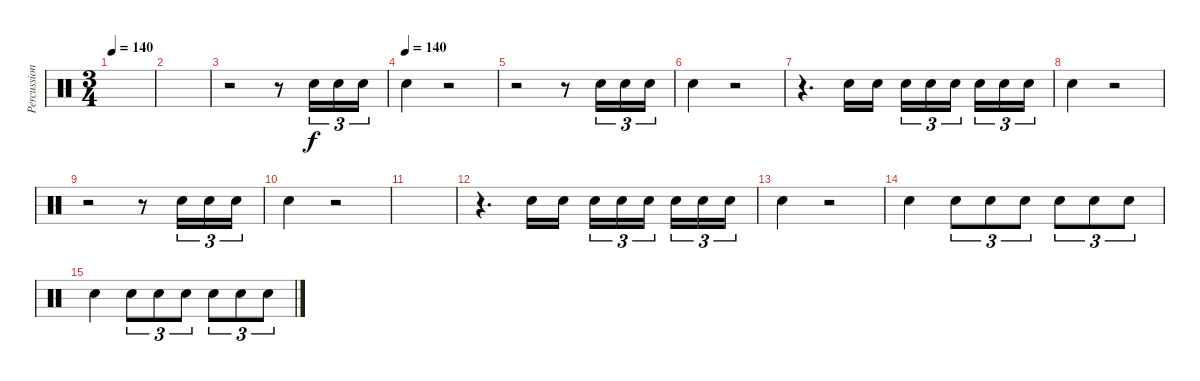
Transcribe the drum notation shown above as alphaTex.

\track ("Percussion" "Percussion") {instrument percussion}
\staff {score}
\articulation defaults
\ts (3 4)
\tempo 140
\clef neutral
\ks c
|
|
r.2 r.8 "Snare (hit) 2".16{tu (3 2) dy f} "Snare (hit) 2".16{tu (3 2)} "Snare (hit) 2".16{tu (3 2)} |
\tempo (140)
"Snare (hit) 2".4 r.2 |
r.2 r.8 "Snare (hit) 2".16{tu (3 2)} "Snare (hit) 2".16{tu (3 2)} "Snare (hit) 2".16{tu (3 2)} |
"Snare (hit) 2".4 r.2 |
r.4{d} "Snare (hit) 2".16 "Snare (hit) 2".16 "Snare (hit) 2".16{tu (3 2)} "Snare (hit) 2".16{tu (3 2)} "Snare (hit) 2".16{tu (3 2) beam splitsecondary} "Snare (hit) 2".16{tu (3 2)} "Snare (hit) 2".16{tu (3 2)} "Snare (hit) 2".16{tu (3 2)} |
"Snare (hit) 2".4 r.2 |
r.2 r.8 "Snare (hit) 2".16{tu (3 2)} "Snare (hit) 2".16{tu (3 2)} "Snare (hit) 2".16{tu (3 2)} |
"Snare (hit) 2".4 r.2 |
|
r.4{d} "Snare (hit) 2".16 "Snare (hit) 2".16 "Snare (hit) 2".16{tu (3 2)} "Snare (hit) 2".16{tu (3 2)} "Snare (hit) 2".16{tu (3 2) beam splitsecondary} "Snare (hit) 2".16{tu (3 2)} "Snare (hit) 2".16{tu (3 2)} "Snare (hit) 2".16{tu (3 2)} |
"Snare (hit) 2".4 r.2 |
"Snare (hit) 2".4 "Snare (hit) 2".8{tu (3 2)} "Snare (hit) 2".8{tu (3 2)} "Snare (hit) 2".8{tu (3 2)} "Snare (hit) 2".8{tu (3 2)} "Snare (hit) 2".8{tu (3 2)} "Snare (hit) 2".8{tu (3 2)} |
"Snare (hit) 2".4 "Snare (hit) 2".8{tu (3 2)} "Snare (hit) 2".8{tu (3 2)} "Snare (hit) 2".8{tu (3 2)} "Snare (hit) 2".8{tu (3 2)} "Snare (hit) 2".8{tu (3 2)} "Snare (hit) 2".8{tu (3 2)}
